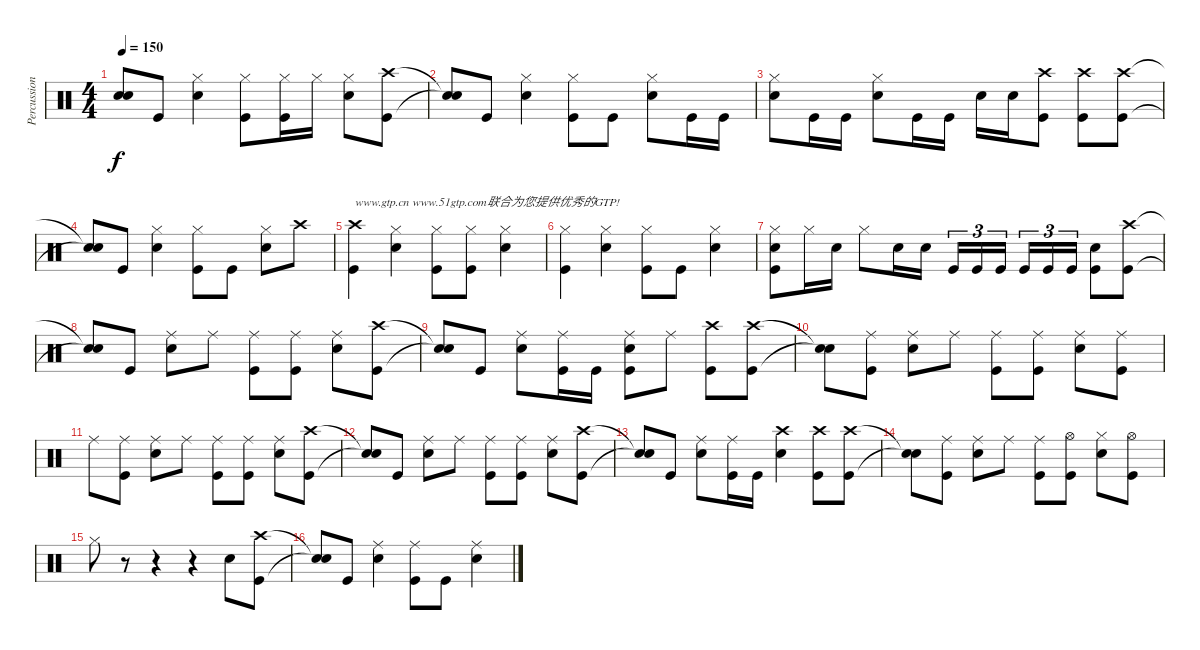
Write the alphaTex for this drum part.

\track ("Percussion" "Percussion") {instrument percussion}
\staff {score}
\articulation defaults
\ts (4 4)
\tempo 150
\clef neutral
\ks c
("Snare (hit)"{t} "Snare (hit)"{t}).8{dy f} "Kick (hit)".8 ("Hi-Hat (closed)" "Electric Snare (hit)").4 ("Hi-Hat (closed)" "Kick (hit)").8 ("Hi-Hat (closed)" "Kick (hit)").16 "Hi-Hat (closed)".16 ("Hi-Hat (closed)" "Electric Snare (hit)").8 ("Crash high (hit)" "Kick (hit)").8 |
("Snare (hit)"{t} "Snare (hit)"{t}).8 "Kick (hit)".8 ("Hi-Hat (closed)" "Electric Snare (hit)").4 ("Hi-Hat (closed)" "Kick (hit)").8 "Kick (hit)".8 ("Hi-Hat (closed)" "Electric Snare (hit)").8 "Kick (hit)".16 "Kick (hit)".16 |
("Hi-Hat (closed)" "Electric Snare (hit)").8 "Kick (hit)".16 "Kick (hit)".16 ("Hi-Hat (closed)" "Electric Snare (hit)").8 "Kick (hit)".16 "Kick (hit)".16 "Electric Snare (hit)".16 "Electric Snare (hit)".16 ("Crash high (hit)" "Kick (hit)").8 ("Crash high (hit)" "Kick (hit)").8 ("Crash high (hit)" "Kick (hit)").8 |
("Snare (hit)"{t} "Snare (hit)"{t}).8 "Kick (hit)".8 ("Hi-Hat (closed)" "Electric Snare (hit)").4 ("Hi-Hat (closed)" "Kick (hit)").8 "Kick (hit)".8 ("Hi-Hat (closed)" "Electric Snare (hit)").8 "Crash high (hit)".8 |
("Crash high (hit)" "Kick (hit)").4{txt "www.gtp.cn www.51gtp.com联合为您提供优秀的GTP!"} ("Hi-Hat (closed)" "Electric Snare (hit)").4 ("Hi-Hat (closed)" "Kick (hit)").8 ("Hi-Hat (closed)" "Kick (hit)").8 ("Hi-Hat (closed)" "Electric Snare (hit)").4 |
("Hi-Hat (closed)" "Kick (hit)").4 ("Hi-Hat (closed)" "Electric Snare (hit)").4 ("Hi-Hat (closed)" "Kick (hit)").8 "Kick (hit)".8 ("Hi-Hat (closed)" "Electric Snare (hit)").4 |
("Electric Snare (hit)" "Hi-Hat (closed)" "Kick (hit)").8 "Hi-Hat (closed)".16 "Electric Snare (hit)".16 "Hi-Hat (closed)".8 "Electric Snare (hit)".16 "Electric Snare (hit)".16 "Kick (hit)".16{tu (3 2)} "Kick (hit)".16{tu (3 2)} "Kick (hit)".16{tu (3 2) beam splitsecondary} "Kick (hit)".16{tu (3 2)} "Kick (hit)".16{tu (3 2)} "Kick (hit)".16{tu (3 2)} ("Electric Snare (hit)" "Kick (hit)").8 ("Crash high (hit)" "Kick (hit)").8 |
("Snare (hit)"{t} "Snare (hit)"{t}).8 "Kick (hit)".8 ("Ride (middle)" "Electric Snare (hit)").8 "Ride (middle)".8 ("Ride (middle)" "Kick (hit)").8 ("Ride (middle)" "Kick (hit)").8 ("Ride (middle)" "Electric Snare (hit)").8 ("Crash high (hit)" "Kick (hit)").8 |
("Snare (hit)"{t} "Snare (hit)"{t}).8 "Kick (hit)".8 ("Ride (middle)" "Electric Snare (hit)").8 ("Ride (middle)" "Kick (hit)").16 "Kick (hit)".16 ("Electric Snare (hit)" "Ride (middle)" "Kick (hit)").8 "Ride (middle)".8 ("Crash high (hit)" "Kick (hit)").8 ("Crash high (hit)" "Kick (hit)").8 |
("Snare (hit)"{t} "Snare (hit)"{t}).8 ("Ride (middle)" "Kick (hit)").8 ("Ride (middle)" "Electric Snare (hit)").8 "Ride (middle)".8 ("Ride (middle)" "Kick (hit)").8 ("Ride (middle)" "Kick (hit)").8 ("Ride (middle)" "Electric Snare (hit)").8 ("Ride (middle)" "Kick (hit)").8 |
"Ride (middle)".8 ("Ride (middle)" "Kick (hit)").8 ("Ride (middle)" "Electric Snare (hit)").8 "Ride (middle)".8 ("Ride (middle)" "Kick (hit)").8 ("Ride (middle)" "Kick (hit)").8 ("Ride (middle)" "Electric Snare (hit)").8 ("Crash high (hit)" "Kick (hit)").8 |
("Snare (hit)"{t} "Snare (hit)"{t}).8 "Kick (hit)".8 ("Ride (middle)" "Electric Snare (hit)").8 "Ride (middle)".8 ("Ride (middle)" "Kick (hit)").8 ("Ride (middle)" "Kick (hit)").8 ("Ride (middle)" "Electric Snare (hit)").8 ("Crash high (hit)" "Kick (hit)").8 |
("Snare (hit)"{t} "Snare (hit)"{t}).8 "Kick (hit)".8 ("Ride (middle)" "Electric Snare (hit)").8 ("Ride (middle)" "Kick (hit)").16 "Kick (hit)".16 ("Crash high (hit)" "Electric Snare (hit)").4 ("Crash high (hit)" "Kick (hit)").8 ("Crash high (hit)" "Kick (hit)").8 |
("Snare (hit)"{t} "Snare (hit)"{t}).8 ("Ride (middle)" "Kick (hit)").8 ("Ride (middle)" "Electric Snare (hit)").8 "Ride (middle)".8 ("Ride (middle)" "Kick (hit)").8 ("Hi-Hat (open)" "Kick (hit)").8 ("Hi-Hat (closed)" "Electric Snare (hit)").8 ("Hi-Hat (open)" "Kick (hit)").8 |
"Hi-Hat (closed)".8 r.8 r.4 r.4 "Electric Snare (hit)".8 ("Crash high (hit)" "Kick (hit)").8 |
("Snare (hit)"{t} "Snare (hit)"{t}).8 "Kick (hit)".8 ("Ride (middle)" "Electric Snare (hit)").4 ("Ride (middle)" "Kick (hit)").8 "Kick (hit)".8 ("Ride (middle)" "Electric Snare (hit)").4
